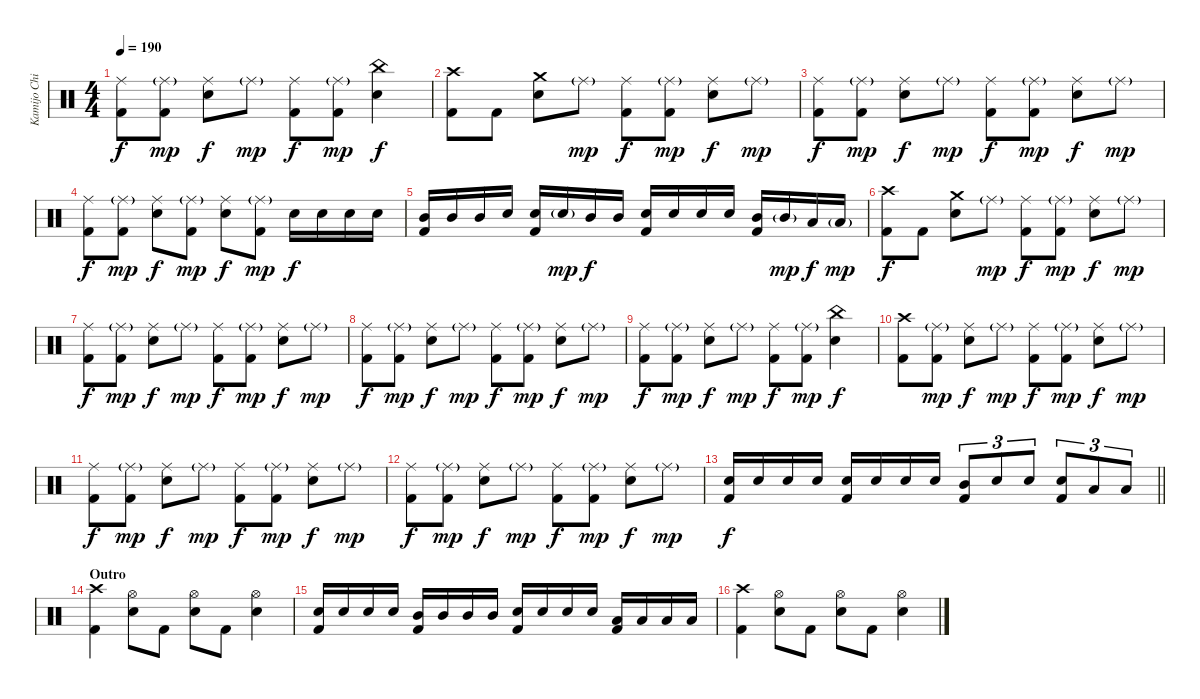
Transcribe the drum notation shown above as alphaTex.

\track ("Kamijo Chihiro" "Kamijo Chi") {instrument percussion}
\staff {score}
\articulation defaults
\ts (4 4)
\tempo 190
\clef neutral
\ks c
("Ride (middle)" "Kick (hit) 2").8{dy f} ("Ride (middle)"{g} "Kick (hit) 2").8{dy mp} ("Ride (middle)" "Snare (hit) 2").8{dy f} "Ride (middle)"{g}.8{dy mp} ("Ride (middle)" "Kick (hit) 2").8{dy f} ("Ride (middle)"{g} "Kick (hit) 2").8{dy mp} ("China (hit)" "Snare (hit) 2").4{dy f} |
("Crash high (hit)" "Kick (hit) 2").8 "Kick (hit) 2".8 ("Crash medium (hit)" "Snare (hit) 2").8 "Ride (middle)"{g}.8{dy mp} ("Ride (middle)" "Kick (hit) 2").8{dy f} ("Ride (middle)"{g} "Kick (hit) 2").8{dy mp} ("Ride (middle)" "Snare (hit) 2").8{dy f} "Ride (middle)"{g}.8{dy mp} |
("Ride (middle)" "Kick (hit) 2").8{dy f} ("Ride (middle)"{g} "Kick (hit) 2").8{dy mp} ("Ride (middle)" "Snare (hit) 2").8{dy f} "Ride (middle)"{g}.8{dy mp} ("Ride (middle)" "Kick (hit) 2").8{dy f} ("Ride (middle)"{g} "Kick (hit) 2").8{dy mp} ("Ride (middle)" "Snare (hit) 2").8{dy f} "Ride (middle)"{g}.8{dy mp} |
("Ride (middle)" "Kick (hit) 2").8{dy f} ("Ride (middle)"{g} "Kick (hit) 2").8{dy mp} ("Ride (middle)" "Snare (hit) 2").8{dy f} ("Ride (middle)"{g} "Kick (hit) 2").8{dy mp} ("Ride (middle)" "Snare (hit) 2").8{dy f} ("Ride (middle)"{g} "Kick (hit) 2").8{dy mp} "Snare (hit) 2".16{dy f} "Snare (hit) 2".16 "Snare (hit) 2".16 "Snare (hit) 2".16 |
("Mid Tom (hit)" "Kick (hit) 2").16 "Mid Tom (hit)".16 "Mid Tom (hit)".16 "Snare (hit) 2".16 ("Snare (hit) 2" "Kick (hit) 2").16 "Snare (hit) 2"{g}.16{dy mp} "Mid Tom (hit)".16{dy f} "Mid Tom (hit)".16 ("Snare (hit) 2" "Kick (hit) 2").16 "Snare (hit) 2".16 "Snare (hit) 2".16 "Snare (hit) 2".16 ("Mid Tom (hit)" "Kick (hit) 2").16 "Mid Tom (hit)"{g}.16{dy mp} "Low Tom (hit)".16{dy f} "Low Tom (hit)"{g}.16{dy mp} |
("Crash high (hit)" "Kick (hit) 2").8{dy f} "Kick (hit) 2".8 ("Crash medium (hit)" "Snare (hit) 2").8 "Ride (middle)"{g}.8{dy mp} ("Ride (middle)" "Kick (hit) 2").8{dy f} ("Ride (middle)"{g} "Kick (hit) 2").8{dy mp} ("Ride (middle)" "Snare (hit) 2").8{dy f} "Ride (middle)"{g}.8{dy mp} |
("Ride (middle)" "Kick (hit) 2").8{dy f} ("Ride (middle)"{g} "Kick (hit) 2").8{dy mp} ("Ride (middle)" "Snare (hit) 2").8{dy f} "Ride (middle)"{g}.8{dy mp} ("Ride (middle)" "Kick (hit) 2").8{dy f} ("Ride (middle)"{g} "Kick (hit) 2").8{dy mp} ("Ride (middle)" "Snare (hit) 2").8{dy f} "Ride (middle)"{g}.8{dy mp} |
("Ride (middle)" "Kick (hit) 2").8{dy f} ("Ride (middle)"{g} "Kick (hit) 2").8{dy mp} ("Ride (middle)" "Snare (hit) 2").8{dy f} "Ride (middle)"{g}.8{dy mp} ("Ride (middle)" "Kick (hit) 2").8{dy f} ("Ride (middle)"{g} "Kick (hit) 2").8{dy mp} ("Ride (middle)" "Snare (hit) 2").8{dy f} "Ride (middle)"{g}.8{dy mp} |
("Ride (middle)" "Kick (hit) 2").8{dy f} ("Ride (middle)"{g} "Kick (hit) 2").8{dy mp} ("Ride (middle)" "Snare (hit) 2").8{dy f} "Ride (middle)"{g}.8{dy mp} ("Ride (middle)" "Kick (hit) 2").8{dy f} ("Ride (middle)"{g} "Kick (hit) 2").8{dy mp} ("China (hit)" "Snare (hit) 2").4{dy f} |
("Crash high (hit)" "Kick (hit) 2").8 ("Ride (middle)"{g} "Kick (hit) 2").8{dy mp} ("Ride (middle)" "Snare (hit) 2").8{dy f} "Ride (middle)"{g}.8{dy mp} ("Ride (middle)" "Kick (hit) 2").8{dy f} ("Ride (middle)"{g} "Kick (hit) 2").8{dy mp} ("Ride (middle)" "Snare (hit) 2").8{dy f} "Ride (middle)"{g}.8{dy mp} |
("Ride (middle)" "Kick (hit) 2").8{dy f} ("Ride (middle)"{g} "Kick (hit) 2").8{dy mp} ("Ride (middle)" "Snare (hit) 2").8{dy f} "Ride (middle)"{g}.8{dy mp} ("Ride (middle)" "Kick (hit) 2").8{dy f} ("Ride (middle)"{g} "Kick (hit) 2").8{dy mp} ("Ride (middle)" "Snare (hit) 2").8{dy f} "Ride (middle)"{g}.8{dy mp} |
("Ride (middle)" "Kick (hit) 2").8{dy f} ("Ride (middle)"{g} "Kick (hit) 2").8{dy mp} ("Ride (middle)" "Snare (hit) 2").8{dy f} "Ride (middle)"{g}.8{dy mp} ("Ride (middle)" "Kick (hit) 2").8{dy f} ("Ride (middle)"{g} "Kick (hit) 2").8{dy mp} ("Ride (middle)" "Snare (hit) 2").8{dy f} "Ride (middle)"{g}.8{dy mp} |
\barLineRight lightlight
("Snare (hit) 2" "Kick (hit) 2").16{dy f} "Snare (hit) 2".16 "Snare (hit) 2".16 "Snare (hit) 2".16 ("Snare (hit) 2" "Kick (hit) 2").16 "Snare (hit) 2".16 "Snare (hit) 2".16 "Snare (hit) 2".16 ("Mid Tom (hit)" "Kick (hit) 2").8{tu (3 2)} "Snare (hit) 2".8{tu (3 2)} "Snare (hit) 2".8{tu (3 2)} ("Snare (hit) 2" "Kick (hit) 2").8{tu (3 2)} "Low Tom (hit)".8{tu (3 2)} "Low Tom (hit)".8{tu (3 2)} |
\section ("" "Outro")
("Crash high (hit)" "Kick (hit) 2").4 ("Hi-Hat (open)" "Snare (hit) 2").8 "Kick (hit) 2".8 ("Hi-Hat (open)" "Snare (hit) 2").8 "Kick (hit) 2".8 ("Hi-Hat (open)" "Snare (hit) 2").4 |
("Snare (hit) 2" "Kick (hit) 2").16 "Snare (hit) 2".16 "Snare (hit) 2".16 "Snare (hit) 2".16 ("Mid Tom (hit)" "Kick (hit) 2").16 "Mid Tom (hit)".16 "Mid Tom (hit)".16 "Mid Tom (hit)".16 ("Snare (hit) 2" "Kick (hit) 2").16 "Snare (hit) 2".16 "Snare (hit) 2".16 "Snare (hit) 2".16 ("Low Tom (hit)" "Kick (hit) 2").16 "Low Tom (hit)".16 "Low Tom (hit)".16 "Low Tom (hit)".16 |
("Crash high (hit)" "Kick (hit) 2").4 ("Hi-Hat (open)" "Snare (hit) 2").8 "Kick (hit) 2".8 ("Hi-Hat (open)" "Snare (hit) 2").8 "Kick (hit) 2".8 ("Hi-Hat (open)" "Snare (hit) 2").4
